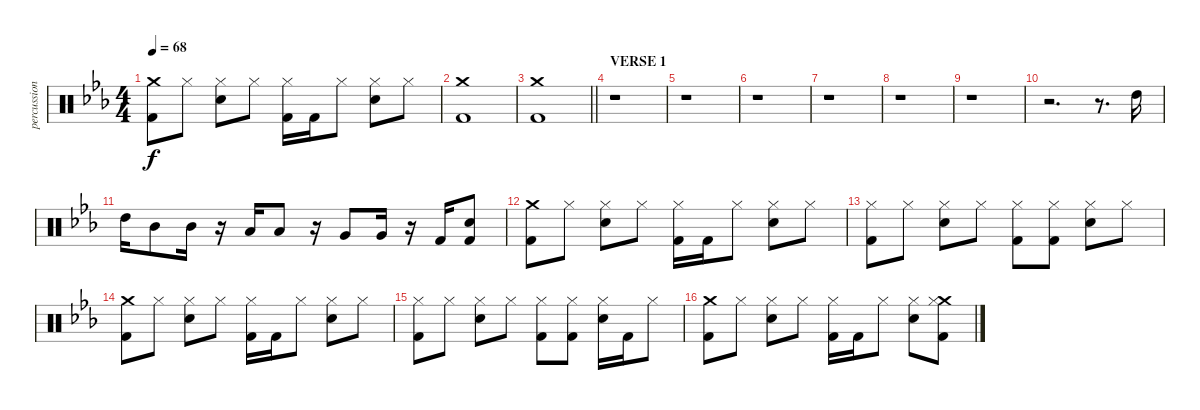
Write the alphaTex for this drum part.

\track ("percussion" "percussion") {instrument percussion}
\staff {score}
\articulation defaults
\ts (4 4)
\tempo 68
\clef neutral
\ks cminor
("Crash medium (hit)" "Kick (hit) 2").8{dy f} "Hi-Hat (closed)".8 ("Snare (hit) 2" "Hi-Hat (closed)").8 "Hi-Hat (closed)".8 ("Hi-Hat (closed)" "Kick (hit) 2").16 "Kick (hit) 2".16 "Hi-Hat (closed)".8 ("Snare (hit) 2" "Hi-Hat (closed)").8 "Hi-Hat (closed)".8 |
("Crash medium (hit)" "Kick (hit) 2").1 |
\barLineRight lightlight
("Crash medium (hit)" "Kick (hit) 2").1 |
\section ("" "VERSE 1")
r.1 |
r.1 |
r.1 |
r.1 |
r.1 |
r.1 |
r.2{d} r.8{d} "High Tom (hit)".16 |
"High Tom (hit)".16 "Mid Tom (hit)".8 "Mid Tom (hit)".16 r.16 "Low Tom (hit)".16 "Low Tom (hit)".8 r.16 "Very Low Tom (hit)".8 "Very Low Tom (hit)".16 r.16 "Kick (hit) 2".16 ("Snare (hit) 2" "Kick (hit) 2").8 |
("Crash medium (hit)" "Kick (hit) 2").8 "Hi-Hat (closed)".8 ("Snare (hit) 2" "Hi-Hat (closed)").8 "Hi-Hat (closed)".8 ("Hi-Hat (closed)" "Kick (hit) 2").16 "Kick (hit) 2".16 "Hi-Hat (closed)".8 ("Snare (hit) 2" "Hi-Hat (closed)").8 "Hi-Hat (closed)".8 |
("Hi-Hat (closed)" "Kick (hit) 2").8 "Hi-Hat (closed)".8 ("Snare (hit) 2" "Hi-Hat (closed)").8 "Hi-Hat (closed)".8 ("Hi-Hat (closed)" "Kick (hit) 2").8 ("Hi-Hat (closed)" "Kick (hit) 2").8 ("Snare (hit) 2" "Hi-Hat (closed)").8 "Hi-Hat (closed)".8 |
("Crash medium (hit)" "Kick (hit) 2").8 "Hi-Hat (closed)".8 ("Snare (hit) 2" "Hi-Hat (closed)").8 "Hi-Hat (closed)".8 ("Hi-Hat (closed)" "Kick (hit) 2").16 "Kick (hit) 2".16 "Hi-Hat (closed)".8 ("Snare (hit) 2" "Hi-Hat (closed)").8 "Hi-Hat (closed)".8 |
("Hi-Hat (closed)" "Kick (hit) 2").8 "Hi-Hat (closed)".8 ("Snare (hit) 2" "Hi-Hat (closed)").8 "Hi-Hat (closed)".8 ("Hi-Hat (closed)" "Kick (hit) 2").8 ("Hi-Hat (closed)" "Kick (hit) 2").8 ("Snare (hit) 2" "Hi-Hat (closed)").16 "Kick (hit) 2".16 "Hi-Hat (closed)".8 |
("Crash medium (hit)" "Kick (hit) 2").8 "Hi-Hat (closed)".8 ("Snare (hit) 2" "Hi-Hat (closed)").8 "Hi-Hat (closed)".8 ("Hi-Hat (closed)" "Kick (hit) 2").16 "Kick (hit) 2".16 "Hi-Hat (closed)".8 ("Snare (hit) 2" "Hi-Hat (closed)").8 ("Crash medium (hit)" "Hi-Hat (closed)" "Kick (hit) 2").8
